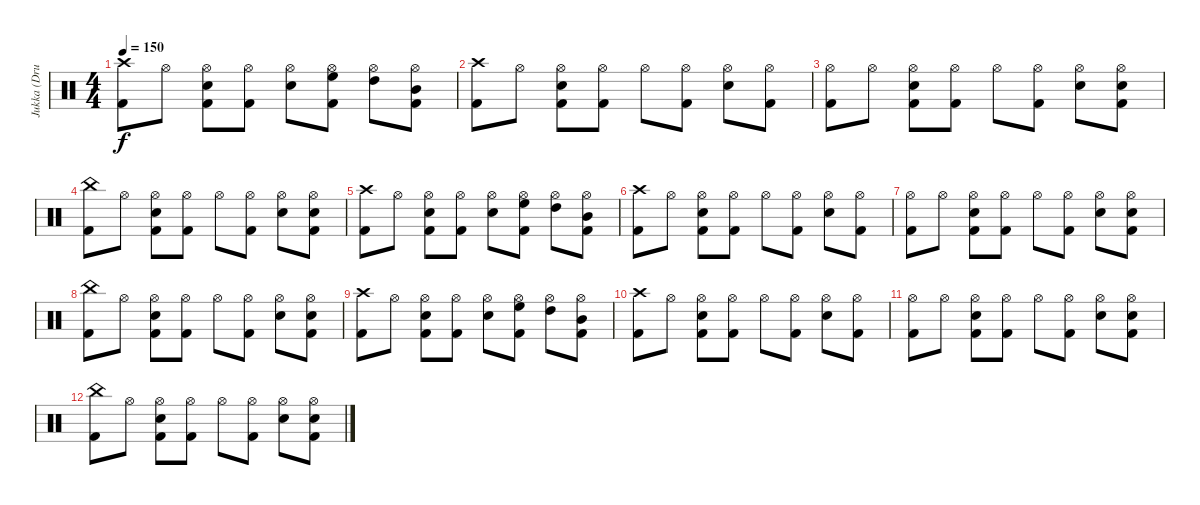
\track ("Jukka (Drums)" "Jukka (Dru") {instrument percussion}
\staff {score}
\articulation defaults
\ts (4 4)
\tempo 150
\clef neutral
\ks c
("Kick (hit) 2" "Crash high (hit)").8{dy f} "Hi-Hat (open)".8 ("Kick (hit) 2" "Hi-Hat (open)" "Electric Snare (hit)").8 ("Kick (hit) 2" "Hi-Hat (open)").8 ("Hi-Hat (open)" "Electric Snare (hit)").8 ("Kick (hit) 2" "Hi-Hat (open)" "High Floor Tom (hit)").8 ("Hi-Hat (open)" "High Tom (hit)").8 ("Kick (hit) 2" "Hi-Hat (open)" "Mid Tom (hit)").8 |
("Kick (hit) 2" "Crash high (hit)").8 "Hi-Hat (open)".8 ("Kick (hit) 2" "Hi-Hat (open)" "Electric Snare (hit)").8 ("Kick (hit) 2" "Hi-Hat (open)").8 "Hi-Hat (open)".8 ("Kick (hit) 2" "Hi-Hat (open)").8 ("Hi-Hat (open)" "Electric Snare (hit)").8 ("Kick (hit) 2" "Hi-Hat (open)").8 |
("Kick (hit) 2" "Hi-Hat (open)").8 "Hi-Hat (open)".8 ("Kick (hit) 2" "Hi-Hat (open)" "Electric Snare (hit)").8 ("Kick (hit) 2" "Hi-Hat (open)").8 "Hi-Hat (open)".8 ("Kick (hit) 2" "Hi-Hat (open)").8 ("Hi-Hat (open)" "Electric Snare (hit)").8 ("Kick (hit) 2" "Hi-Hat (open)" "Electric Snare (hit)").8 |
("Kick (hit) 2" "China (hit)").8 "Hi-Hat (open)".8 ("Kick (hit) 2" "Hi-Hat (open)" "Electric Snare (hit)").8 ("Kick (hit) 2" "Hi-Hat (open)").8 "Hi-Hat (open)".8 ("Kick (hit) 2" "Hi-Hat (open)").8 ("Hi-Hat (open)" "Electric Snare (hit)").8 ("Kick (hit) 2" "Hi-Hat (open)" "Electric Snare (hit)").8 |
("Kick (hit) 2" "Crash high (hit)").8 "Hi-Hat (open)".8 ("Kick (hit) 2" "Hi-Hat (open)" "Electric Snare (hit)").8 ("Kick (hit) 2" "Hi-Hat (open)").8 ("Hi-Hat (open)" "Electric Snare (hit)").8 ("Kick (hit) 2" "Hi-Hat (open)" "High Floor Tom (hit)").8 ("Hi-Hat (open)" "High Tom (hit)").8 ("Kick (hit) 2" "Hi-Hat (open)" "Mid Tom (hit)").8 |
("Kick (hit) 2" "Crash high (hit)").8 "Hi-Hat (open)".8 ("Kick (hit) 2" "Hi-Hat (open)" "Electric Snare (hit)").8 ("Kick (hit) 2" "Hi-Hat (open)").8 "Hi-Hat (open)".8 ("Kick (hit) 2" "Hi-Hat (open)").8 ("Hi-Hat (open)" "Electric Snare (hit)").8 ("Kick (hit) 2" "Hi-Hat (open)").8 |
("Kick (hit) 2" "Hi-Hat (open)").8 "Hi-Hat (open)".8 ("Kick (hit) 2" "Hi-Hat (open)" "Electric Snare (hit)").8 ("Kick (hit) 2" "Hi-Hat (open)").8 "Hi-Hat (open)".8 ("Kick (hit) 2" "Hi-Hat (open)").8 ("Hi-Hat (open)" "Electric Snare (hit)").8 ("Kick (hit) 2" "Hi-Hat (open)" "Electric Snare (hit)").8 |
("Kick (hit) 2" "China (hit)").8 "Hi-Hat (open)".8 ("Kick (hit) 2" "Hi-Hat (open)" "Electric Snare (hit)").8 ("Kick (hit) 2" "Hi-Hat (open)").8 "Hi-Hat (open)".8 ("Kick (hit) 2" "Hi-Hat (open)").8 ("Hi-Hat (open)" "Electric Snare (hit)").8 ("Kick (hit) 2" "Hi-Hat (open)" "Electric Snare (hit)").8 |
("Kick (hit) 2" "Crash high (hit)").8 "Hi-Hat (open)".8 ("Kick (hit) 2" "Hi-Hat (open)" "Electric Snare (hit)").8 ("Kick (hit) 2" "Hi-Hat (open)").8 ("Hi-Hat (open)" "Electric Snare (hit)").8 ("Kick (hit) 2" "Hi-Hat (open)" "High Floor Tom (hit)").8 ("Hi-Hat (open)" "High Tom (hit)").8 ("Kick (hit) 2" "Hi-Hat (open)" "Mid Tom (hit)").8 |
("Kick (hit) 2" "Crash high (hit)").8 "Hi-Hat (open)".8 ("Kick (hit) 2" "Hi-Hat (open)" "Electric Snare (hit)").8 ("Kick (hit) 2" "Hi-Hat (open)").8 "Hi-Hat (open)".8 ("Kick (hit) 2" "Hi-Hat (open)").8 ("Hi-Hat (open)" "Electric Snare (hit)").8 ("Kick (hit) 2" "Hi-Hat (open)").8 |
("Kick (hit) 2" "Hi-Hat (open)").8 "Hi-Hat (open)".8 ("Kick (hit) 2" "Hi-Hat (open)" "Electric Snare (hit)").8 ("Kick (hit) 2" "Hi-Hat (open)").8 "Hi-Hat (open)".8 ("Kick (hit) 2" "Hi-Hat (open)").8 ("Hi-Hat (open)" "Electric Snare (hit)").8 ("Kick (hit) 2" "Hi-Hat (open)" "Electric Snare (hit)").8 |
("Kick (hit) 2" "China (hit)").8 "Hi-Hat (open)".8 ("Kick (hit) 2" "Hi-Hat (open)" "Electric Snare (hit)").8 ("Kick (hit) 2" "Hi-Hat (open)").8 "Hi-Hat (open)".8 ("Kick (hit) 2" "Hi-Hat (open)").8 ("Hi-Hat (open)" "Electric Snare (hit)").8 ("Kick (hit) 2" "Hi-Hat (open)" "Electric Snare (hit)").8
